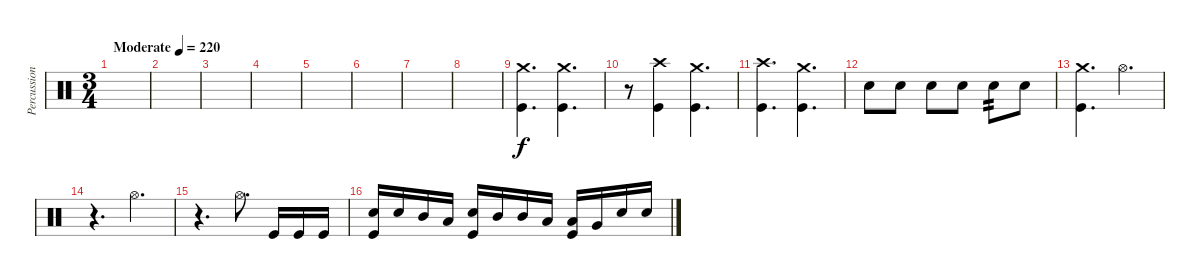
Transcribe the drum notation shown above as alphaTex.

\track ("Percussion" "Percussion") {instrument percussion}
\staff {score}
\articulation defaults
\ts (3 4)
\tempo (220 "Moderate")
\clef neutral
\ks c
|
|
|
|
|
|
|
|
("Crash medium (hit)" "Kick (hit)").4{d} ("Crash medium (hit)" "Kick (hit)").4{d} |
r.8 ("Crash high (hit)" "Kick (hit)").4 ("Crash medium (hit)" "Kick (hit)").4{d} |
("Crash high (hit)" "Kick (hit)").4{d} ("Crash medium (hit)" "Kick (hit)").4{d} |
"Electric Snare (hit)".8 "Electric Snare (hit)".8 "Electric Snare (hit)".8 "Electric Snare (hit)".8 "Electric Snare (hit)".8{tp 2} "Electric Snare (hit)".8 |
("Crash medium (hit)" "Kick (hit)").4{d} "Hi-Hat (open)".4{d} |
r.4{d} "Hi-Hat (open)".4{d} |
r.4{d} "Hi-Hat (open)".8{d} "Kick (hit)".16 "Kick (hit)".16 "Kick (hit)".16 |
("Electric Snare (hit)" "Kick (hit)").16 "Electric Snare (hit)".16 "Mid Tom (hit)".16 "Low Tom (hit)".16 ("Electric Snare (hit)" "Kick (hit)").16 "Mid Tom (hit)".16 "Mid Tom (hit)".16 "Low Tom (hit)".16 ("Low Tom (hit)" "Kick (hit)").16 "Very Low Tom (hit)".16 "Electric Snare (hit)".16 "Electric Snare (hit)".16
